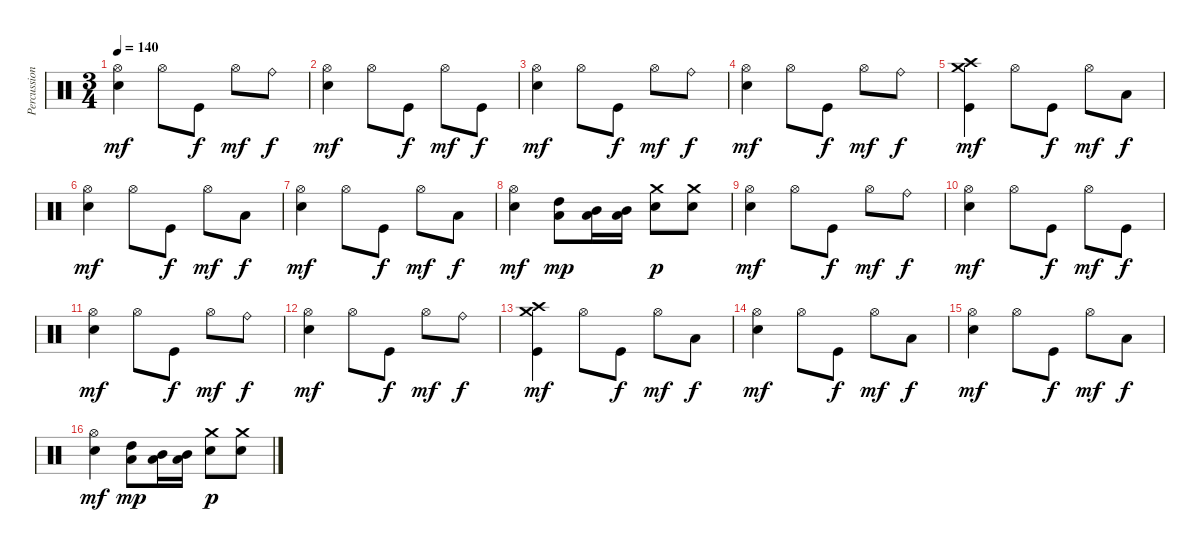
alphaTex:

\track ("Percussion" "Percussion") {instrument percussion}
\staff {score}
\articulation defaults
\ts (3 4)
\tempo 140
\clef neutral
\ks c
("Electric Snare (hit)" "Hi-Hat (open)").4{dy mf} "Hi-Hat (open)".8 "Kick (hit)".8{dy f} "Hi-Hat (open)".8{dy mf} "Ride (bell)".8{dy f} |
("Electric Snare (hit)" "Hi-Hat (open)").4{dy mf} "Hi-Hat (open)".8 "Kick (hit)".8{dy f} "Hi-Hat (open)".8{dy mf} "Kick (hit)".8{dy f} |
("Electric Snare (hit)" "Hi-Hat (open)").4{dy mf} "Hi-Hat (open)".8 "Kick (hit)".8{dy f} "Hi-Hat (open)".8{dy mf} "Ride (bell)".8{dy f} |
("Electric Snare (hit)" "Hi-Hat (open)").4{dy mf} "Hi-Hat (open)".8 "Kick (hit)".8{dy f} "Hi-Hat (open)".8{dy mf} "Ride (bell)".8{dy f} |
("Kick (hit)" "Crash high (hit)" "Crash medium (hit)").4{dy mf} "Hi-Hat (open)".8 "Kick (hit)".8{dy f} "Hi-Hat (open)".8{dy mf} "Low Floor Tom (hit)".8{dy f} |
("Electric Snare (hit)" "Hi-Hat (open)").4{dy mf} "Hi-Hat (open)".8 "Kick (hit)".8{dy f} "Hi-Hat (open)".8{dy mf} "Low Floor Tom (hit)".8{dy f} |
("Electric Snare (hit)" "Hi-Hat (open)").4{dy mf} "Hi-Hat (open)".8 "Kick (hit)".8{dy f} "Hi-Hat (open)".8{dy mf} "Low Floor Tom (hit)".8{dy f} |
("Electric Snare (hit)" "Hi-Hat (open)").4{dy mf} ("Low Tom (hit)" "High Tom (hit)").8{dy mp} ("Low Tom (hit)" "Mid Tom (hit)").16 ("Low Tom (hit)" "Mid Tom (hit)").16 ("Electric Snare (hit)" "Crash medium (hit)").8{dy p} ("Electric Snare (hit)" "Crash medium (hit)").8 |
("Electric Snare (hit)" "Hi-Hat (open)").4{dy mf} "Hi-Hat (open)".8 "Kick (hit)".8{dy f} "Hi-Hat (open)".8{dy mf} "Ride (bell)".8{dy f} |
("Electric Snare (hit)" "Hi-Hat (open)").4{dy mf} "Hi-Hat (open)".8 "Kick (hit)".8{dy f} "Hi-Hat (open)".8{dy mf} "Kick (hit)".8{dy f} |
("Electric Snare (hit)" "Hi-Hat (open)").4{dy mf} "Hi-Hat (open)".8 "Kick (hit)".8{dy f} "Hi-Hat (open)".8{dy mf} "Ride (bell)".8{dy f} |
("Electric Snare (hit)" "Hi-Hat (open)").4{dy mf} "Hi-Hat (open)".8 "Kick (hit)".8{dy f} "Hi-Hat (open)".8{dy mf} "Ride (bell)".8{dy f} |
("Kick (hit)" "Crash high (hit)" "Crash medium (hit)").4{dy mf} "Hi-Hat (open)".8 "Kick (hit)".8{dy f} "Hi-Hat (open)".8{dy mf} "Low Floor Tom (hit)".8{dy f} |
("Electric Snare (hit)" "Hi-Hat (open)").4{dy mf} "Hi-Hat (open)".8 "Kick (hit)".8{dy f} "Hi-Hat (open)".8{dy mf} "Low Floor Tom (hit)".8{dy f} |
("Electric Snare (hit)" "Hi-Hat (open)").4{dy mf} "Hi-Hat (open)".8 "Kick (hit)".8{dy f} "Hi-Hat (open)".8{dy mf} "Low Floor Tom (hit)".8{dy f} |
("Electric Snare (hit)" "Hi-Hat (open)").4{dy mf} ("Low Tom (hit)" "High Tom (hit)").8{dy mp} ("Low Tom (hit)" "Mid Tom (hit)").16 ("Low Tom (hit)" "Mid Tom (hit)").16 ("Electric Snare (hit)" "Crash medium (hit)").8{dy p} ("Electric Snare (hit)" "Crash medium (hit)").8
